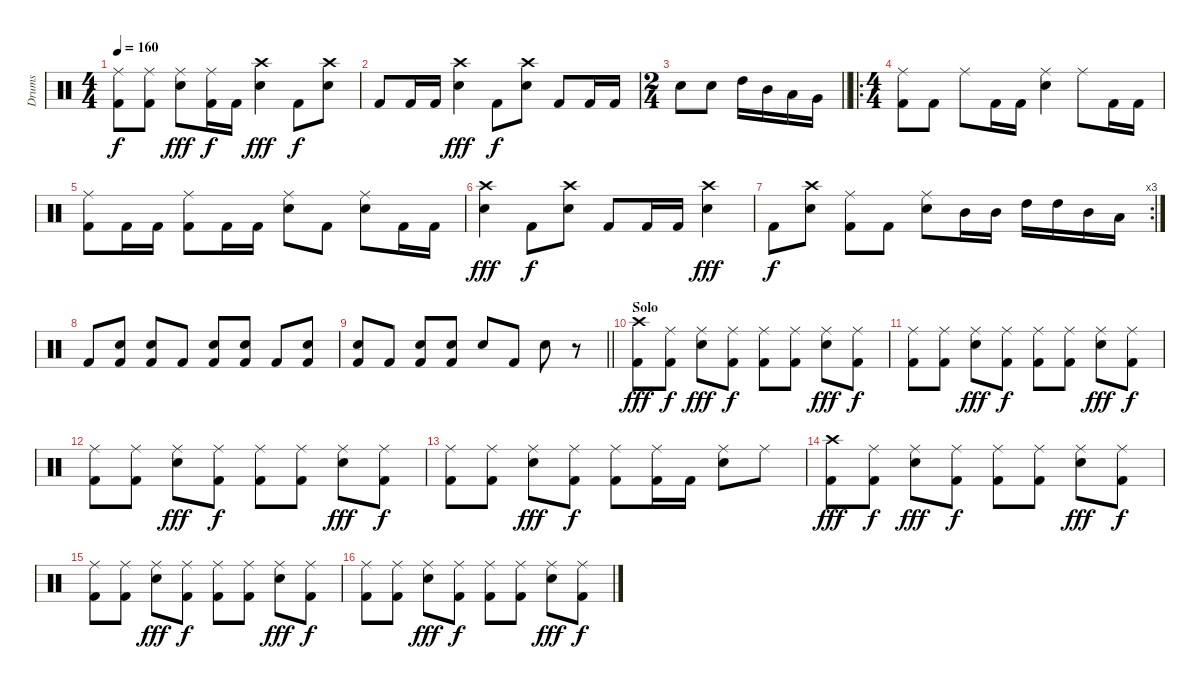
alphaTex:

\track ("Drums" "Drums") {instrument percussion}
\staff {score}
\articulation defaults
\ts (4 4)
\tempo 160
\clef neutral
\ks c
("Kick (hit) 2" "Ride (middle)").8{dy f} ("Kick (hit) 2" "Ride (middle)").8 ("Snare (hit) 2" "Ride (middle)").8{dy fff} ("Kick (hit) 2" "Ride (middle)").16{dy f} "Kick (hit) 2".16 ("Snare (hit) 2" "Crash high (hit)").4{dy fff} "Kick (hit) 2".8{dy f} ("Snare (hit) 2" "Crash high (hit)").8 |
"Kick (hit) 2".8 "Kick (hit) 2".16 "Kick (hit) 2".16 ("Snare (hit) 2" "Crash high (hit)").4{dy fff} "Kick (hit) 2".8{dy f} ("Snare (hit) 2" "Crash high (hit)").8 "Kick (hit) 2".8 "Kick (hit) 2".16 "Kick (hit) 2".16 |
\ts (2 4)
\barLineRight lightlight "Snare (hit) 2".8 "Snare (hit) 2".8 "High Tom (hit)".16 "Mid Tom (hit)".16 "Low Tom (hit)".16 "Very Low Tom (hit)".16
|
\ro
\ts (4 4)
("Kick (hit) 2" "Ride (middle)").8 "Kick (hit) 2".8 "Ride (middle)".8 "Kick (hit) 2".16 "Kick (hit) 2".16 ("Snare (hit) 2" "Ride (middle)").4 "Ride (middle)".8 "Kick (hit) 2".16 "Kick (hit) 2".16 |
("Kick (hit) 2" "Ride (middle)").8 "Kick (hit) 2".16 "Kick (hit) 2".16 ("Kick (hit) 2" "Ride (middle)").8 "Kick (hit) 2".16 "Kick (hit) 2".16 ("Snare (hit) 2" "Ride (middle)").8 "Kick (hit) 2".8 ("Snare (hit) 2" "Ride (middle)").8 "Kick (hit) 2".16 "Kick (hit) 2".16 |
("Snare (hit) 2" "Crash high (hit)").4{dy fff} "Kick (hit) 2".8{dy f} ("Snare (hit) 2" "Crash high (hit)").8 "Kick (hit) 2".8 "Kick (hit) 2".16 "Kick (hit) 2".16 ("Snare (hit) 2" "Crash high (hit)").4{dy fff} |
\rc 3 "Kick (hit) 2".8{dy f}
("Snare (hit) 2" "Crash high (hit)").8 ("Kick (hit) 2" "Ride (middle)").8 "Kick (hit) 2".8 ("Snare (hit) 2" "Ride (middle)").8 "Mid Tom (hit)".16 "Mid Tom (hit)".16 "High Tom (hit)".16 "High Tom (hit)".16 "Mid Tom (hit)".16 "Low Tom (hit)".16 |
"Kick (hit) 2".8 ("Snare (hit) 2" "Kick (hit) 2").8 ("Snare (hit) 2" "Kick (hit) 2").8 "Kick (hit) 2".8 ("Snare (hit) 2" "Kick (hit) 2").8 ("Snare (hit) 2" "Kick (hit) 2").8 "Kick (hit) 2".8 ("Snare (hit) 2" "Kick (hit) 2").8 |
\barLineRight lightlight
("Snare (hit) 2" "Kick (hit) 2").8 "Kick (hit) 2".8 ("Snare (hit) 2" "Kick (hit) 2").8 ("Snare (hit) 2" "Kick (hit) 2").8 "Snare (hit) 2".8 "Kick (hit) 2".8 "Snare (hit) 2".8 r.8 |
\section ("" "Solo")
("Kick (hit) 2" "Crash high (hit)").8{dy fff} ("Kick (hit) 2" "Ride (middle)").8{dy f} ("Snare (hit) 2" "Ride (middle)").8{dy fff} ("Kick (hit) 2" "Ride (middle)").8{dy f} ("Kick (hit) 2" "Ride (middle)").8 ("Kick (hit) 2" "Ride (middle)").8 ("Snare (hit) 2" "Ride (middle)").8{dy fff} ("Kick (hit) 2" "Ride (middle)").8{dy f} |
("Kick (hit) 2" "Ride (middle)").8 ("Kick (hit) 2" "Ride (middle)").8 ("Snare (hit) 2" "Ride (middle)").8{dy fff} ("Kick (hit) 2" "Ride (middle)").8{dy f} ("Kick (hit) 2" "Ride (middle)").8 ("Kick (hit) 2" "Ride (middle)").8 ("Snare (hit) 2" "Ride (middle)").8{dy fff} ("Kick (hit) 2" "Ride (middle)").8{dy f} |
("Kick (hit) 2" "Ride (middle)").8 ("Kick (hit) 2" "Ride (middle)").8 ("Snare (hit) 2" "Ride (middle)").8{dy fff} ("Kick (hit) 2" "Ride (middle)").8{dy f} ("Kick (hit) 2" "Ride (middle)").8 ("Kick (hit) 2" "Ride (middle)").8 ("Snare (hit) 2" "Ride (middle)").8{dy fff} ("Kick (hit) 2" "Ride (middle)").8{dy f} |
("Kick (hit) 2" "Ride (middle)").8 ("Kick (hit) 2" "Ride (middle)").8 ("Snare (hit) 2" "Ride (middle)").8{dy fff} ("Kick (hit) 2" "Ride (middle)").8{dy f} ("Kick (hit) 2" "Ride (middle)").8 ("Kick (hit) 2" "Ride (middle)").16 "Kick (hit) 2".16 ("Snare (hit) 2" "Ride (middle)").8 "Ride (middle)".8 |
("Kick (hit) 2" "Crash high (hit)").8{dy fff} ("Kick (hit) 2" "Ride (middle)").8{dy f} ("Snare (hit) 2" "Ride (middle)").8{dy fff} ("Kick (hit) 2" "Ride (middle)").8{dy f} ("Kick (hit) 2" "Ride (middle)").8 ("Kick (hit) 2" "Ride (middle)").8 ("Snare (hit) 2" "Ride (middle)").8{dy fff} ("Kick (hit) 2" "Ride (middle)").8{dy f} |
("Kick (hit) 2" "Ride (middle)").8 ("Kick (hit) 2" "Ride (middle)").8 ("Snare (hit) 2" "Ride (middle)").8{dy fff} ("Kick (hit) 2" "Ride (middle)").8{dy f} ("Kick (hit) 2" "Ride (middle)").8 ("Kick (hit) 2" "Ride (middle)").8 ("Snare (hit) 2" "Ride (middle)").8{dy fff} ("Kick (hit) 2" "Ride (middle)").8{dy f} |
("Kick (hit) 2" "Ride (middle)").8 ("Kick (hit) 2" "Ride (middle)").8 ("Snare (hit) 2" "Ride (middle)").8{dy fff} ("Kick (hit) 2" "Ride (middle)").8{dy f} ("Kick (hit) 2" "Ride (middle)").8 ("Kick (hit) 2" "Ride (middle)").8 ("Snare (hit) 2" "Ride (middle)").8{dy fff} ("Kick (hit) 2" "Ride (middle)").8{dy f}
